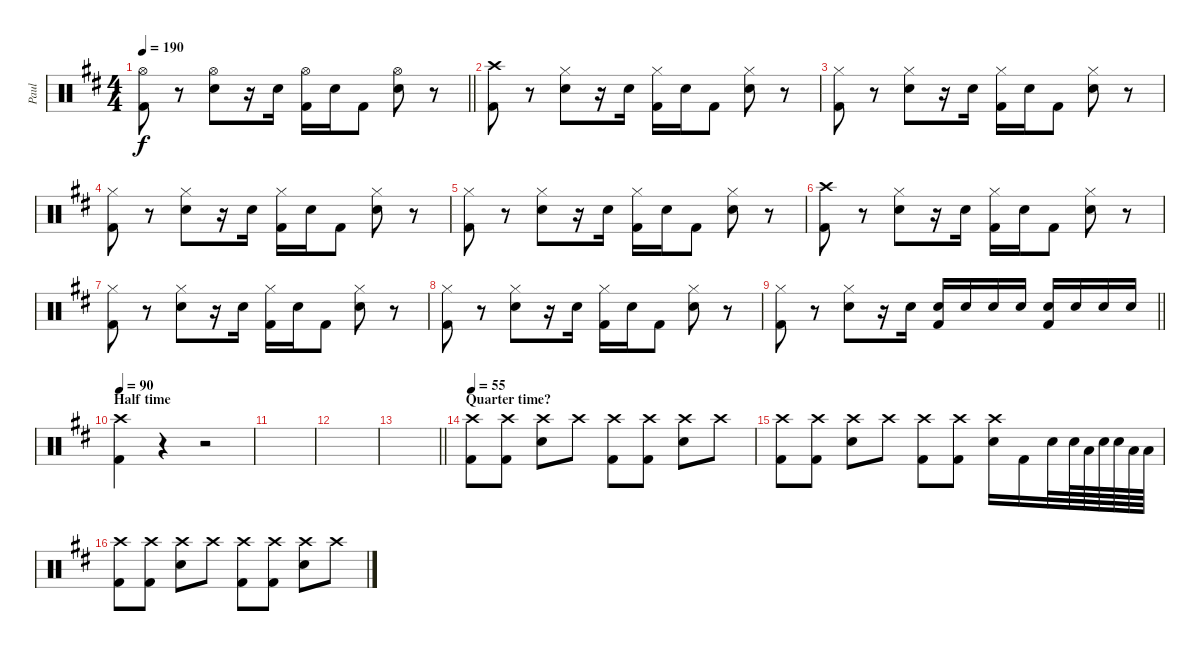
\track ("Paul" "Paul") {instrument percussion}
\staff {score}
\articulation defaults
\ts (4 4)
\tempo 190
\clef neutral
\barLineRight lightlight
\ks d
("Hi-Hat (open)" "Kick (hit) 2").8{dy f} r.8 ("Hi-Hat (open)" "Electric Snare (hit)").8 r.16 "Electric Snare (hit)".16 ("Hi-Hat (open)" "Kick (hit) 2").16 "Electric Snare (hit)".16 "Kick (hit) 2".8 ("Hi-Hat (open)" "Electric Snare (hit)").8 r.8 |
("Crash high (hit)" "Kick (hit) 2").8 r.8 ("Hi-Hat (closed)" "Electric Snare (hit)").8 r.16 "Electric Snare (hit)".16 ("Hi-Hat (closed)" "Kick (hit) 2").16 "Electric Snare (hit)".16 "Kick (hit) 2".8 ("Hi-Hat (closed)" "Electric Snare (hit)").8 r.8 |
("Hi-Hat (closed)" "Kick (hit) 2").8 r.8 ("Hi-Hat (closed)" "Electric Snare (hit)").8 r.16 "Electric Snare (hit)".16 ("Hi-Hat (closed)" "Kick (hit) 2").16 "Electric Snare (hit)".16 "Kick (hit) 2".8 ("Hi-Hat (closed)" "Electric Snare (hit)").8 r.8 |
("Hi-Hat (closed)" "Kick (hit) 2").8 r.8 ("Hi-Hat (closed)" "Electric Snare (hit)").8 r.16 "Electric Snare (hit)".16 ("Hi-Hat (closed)" "Kick (hit) 2").16 "Electric Snare (hit)".16 "Kick (hit) 2".8 ("Hi-Hat (closed)" "Electric Snare (hit)").8 r.8 |
("Hi-Hat (closed)" "Kick (hit) 2").8 r.8 ("Hi-Hat (closed)" "Electric Snare (hit)").8 r.16 "Electric Snare (hit)".16 ("Hi-Hat (closed)" "Kick (hit) 2").16 "Electric Snare (hit)".16 "Kick (hit) 2".8 ("Hi-Hat (closed)" "Electric Snare (hit)").8 r.8 |
("Crash high (hit)" "Kick (hit) 2").8 r.8 ("Hi-Hat (closed)" "Electric Snare (hit)").8 r.16 "Electric Snare (hit)".16 ("Hi-Hat (closed)" "Kick (hit) 2").16 "Electric Snare (hit)".16 "Kick (hit) 2".8 ("Hi-Hat (closed)" "Electric Snare (hit)").8 r.8 |
("Hi-Hat (closed)" "Kick (hit) 2").8 r.8 ("Hi-Hat (closed)" "Electric Snare (hit)").8 r.16 "Electric Snare (hit)".16 ("Hi-Hat (closed)" "Kick (hit) 2").16 "Electric Snare (hit)".16 "Kick (hit) 2".8 ("Hi-Hat (closed)" "Electric Snare (hit)").8 r.8 |
("Hi-Hat (closed)" "Kick (hit) 2").8 r.8 ("Hi-Hat (closed)" "Electric Snare (hit)").8 r.16 "Electric Snare (hit)".16 ("Hi-Hat (closed)" "Kick (hit) 2").16 "Electric Snare (hit)".16 "Kick (hit) 2".8 ("Hi-Hat (closed)" "Electric Snare (hit)").8 r.8 |
\barLineRight lightlight
("Hi-Hat (closed)" "Kick (hit) 2").8 r.8 ("Hi-Hat (closed)" "Electric Snare (hit)").8 r.16 "Electric Snare (hit)".16 ("Electric Snare (hit)" "Kick (hit) 2").16 "Electric Snare (hit)".16 "Electric Snare (hit)".16 "Electric Snare (hit)".16 ("Electric Snare (hit)" "Kick (hit) 2").16 "Electric Snare (hit)".16 "Electric Snare (hit)".16 "Electric Snare (hit)".16 |
\section ("" "Half time")
\tempo 90
("Crash high (hit)" "Kick (hit) 2").4 r.4 r.2 |
|
|
\barLineRight lightlight
|
\section ("" "Quarter time?")
\tempo 55
("Crash high (hit)" "Kick (hit) 2").8 ("Crash high (hit)" "Kick (hit) 2").8 ("Crash high (hit)" "Electric Snare (hit)").8 "Crash high (hit)".8 ("Crash high (hit)" "Kick (hit) 2").8 ("Crash high (hit)" "Kick (hit) 2").8 ("Crash high (hit)" "Electric Snare (hit)").8 "Crash high (hit)".8 |
("Crash high (hit)" "Kick (hit) 2").8 ("Crash high (hit)" "Kick (hit) 2").8 ("Crash high (hit)" "Electric Snare (hit)").8 "Crash high (hit)".8 ("Crash high (hit)" "Kick (hit) 2").8 ("Crash high (hit)" "Kick (hit) 2").8 ("Crash high (hit)" "Electric Snare (hit)").16 "Kick (hit) 2".16 "Electric Snare (hit)".32 "Electric Snare (hit)".64 "Low Tom (hit)".64 "Electric Snare (hit)".64 "Electric Snare (hit)".64 "Low Tom (hit)".64 "Low Tom (hit)".64 |
("Crash high (hit)" "Kick (hit) 2").8 ("Crash high (hit)" "Kick (hit) 2").8 ("Crash high (hit)" "Electric Snare (hit)").8 "Crash high (hit)".8 ("Crash high (hit)" "Kick (hit) 2").8 ("Crash high (hit)" "Kick (hit) 2").8 ("Crash high (hit)" "Electric Snare (hit)").8 "Crash high (hit)".8
